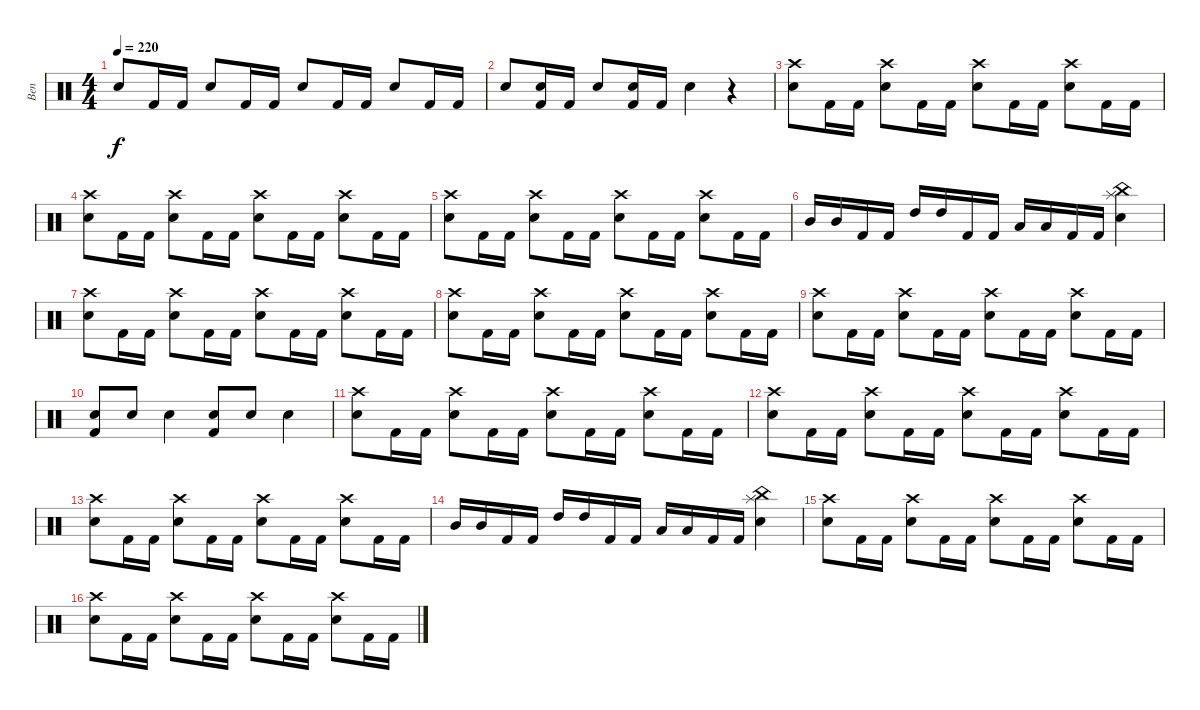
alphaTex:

\track ("Ben" "Ben") {instrument percussion}
\staff {score}
\articulation defaults
\ts (4 4)
\tempo 220
\clef neutral
\ks c "Snare (hit) 2".8{dy f} "Kick (hit) 2".16 "Kick (hit) 2".16 "Snare (hit) 2".8 "Kick (hit) 2".16 "Kick (hit) 2".16 "Snare (hit) 2".8 "Kick (hit) 2".16 "Kick (hit) 2".16 "Snare (hit) 2".8 "Kick (hit) 2".16 "Kick (hit) 2".16
|
"Snare (hit) 2".8 ("Snare (hit) 2" "Kick (hit) 2").16 "Kick (hit) 2".16 "Snare (hit) 2".8 ("Snare (hit) 2" "Kick (hit) 2").16 "Kick (hit) 2".16 "Snare (hit) 2".4 r.4 |
("Crash high (hit)" "Snare (hit) 2").8 "Kick (hit) 2".16 "Kick (hit) 2".16 ("Crash high (hit)" "Snare (hit) 2").8 "Kick (hit) 2".16 "Kick (hit) 2".16 ("Crash high (hit)" "Snare (hit) 2").8 "Kick (hit) 2".16 "Kick (hit) 2".16 ("Crash high (hit)" "Snare (hit) 2").8 "Kick (hit) 2".16 "Kick (hit) 2".16 |
("Crash high (hit)" "Snare (hit) 2").8 "Kick (hit) 2".16 "Kick (hit) 2".16 ("Crash high (hit)" "Snare (hit) 2").8 "Kick (hit) 2".16 "Kick (hit) 2".16 ("Crash high (hit)" "Snare (hit) 2").8 "Kick (hit) 2".16 "Kick (hit) 2".16 ("Crash high (hit)" "Snare (hit) 2").8 "Kick (hit) 2".16 "Kick (hit) 2".16 |
("Crash high (hit)" "Snare (hit) 2").8 "Kick (hit) 2".16 "Kick (hit) 2".16 ("Crash high (hit)" "Snare (hit) 2").8 "Kick (hit) 2".16 "Kick (hit) 2".16 ("Crash high (hit)" "Snare (hit) 2").8 "Kick (hit) 2".16 "Kick (hit) 2".16 ("Crash high (hit)" "Snare (hit) 2").8 "Kick (hit) 2".16 "Kick (hit) 2".16 |
"Mid Tom (hit)".16 "Mid Tom (hit)".16 "Kick (hit) 2".16 "Kick (hit) 2".16 "High Tom (hit)".16 "High Tom (hit)".16 "Kick (hit) 2".16 "Kick (hit) 2".16 "Low Tom (hit)".16 "Low Tom (hit)".16 "Kick (hit) 2".16 "Kick (hit) 2".16 ("China (hit)" "Splash (hit)" "Snare (hit) 2").4 |
("Crash high (hit)" "Snare (hit) 2").8 "Kick (hit) 2".16 "Kick (hit) 2".16 ("Crash high (hit)" "Snare (hit) 2").8 "Kick (hit) 2".16 "Kick (hit) 2".16 ("Crash high (hit)" "Snare (hit) 2").8 "Kick (hit) 2".16 "Kick (hit) 2".16 ("Crash high (hit)" "Snare (hit) 2").8 "Kick (hit) 2".16 "Kick (hit) 2".16 |
("Crash high (hit)" "Snare (hit) 2").8 "Kick (hit) 2".16 "Kick (hit) 2".16 ("Crash high (hit)" "Snare (hit) 2").8 "Kick (hit) 2".16 "Kick (hit) 2".16 ("Crash high (hit)" "Snare (hit) 2").8 "Kick (hit) 2".16 "Kick (hit) 2".16 ("Crash high (hit)" "Snare (hit) 2").8 "Kick (hit) 2".16 "Kick (hit) 2".16 |
("Crash high (hit)" "Snare (hit) 2").8 "Kick (hit) 2".16 "Kick (hit) 2".16 ("Crash high (hit)" "Snare (hit) 2").8 "Kick (hit) 2".16 "Kick (hit) 2".16 ("Crash high (hit)" "Snare (hit) 2").8 "Kick (hit) 2".16 "Kick (hit) 2".16 ("Crash high (hit)" "Snare (hit) 2").8 "Kick (hit) 2".16 "Kick (hit) 2".16 |
("Snare (hit) 2" "Kick (hit) 2").8 "Snare (hit) 2".8 "Snare (hit) 2".4 ("Snare (hit) 2" "Kick (hit) 2").8 "Snare (hit) 2".8 "Snare (hit) 2".4 |
("Crash high (hit)" "Snare (hit) 2").8 "Kick (hit) 2".16 "Kick (hit) 2".16 ("Crash high (hit)" "Snare (hit) 2").8 "Kick (hit) 2".16 "Kick (hit) 2".16 ("Crash high (hit)" "Snare (hit) 2").8 "Kick (hit) 2".16 "Kick (hit) 2".16 ("Crash high (hit)" "Snare (hit) 2").8 "Kick (hit) 2".16 "Kick (hit) 2".16 |
("Crash high (hit)" "Snare (hit) 2").8 "Kick (hit) 2".16 "Kick (hit) 2".16 ("Crash high (hit)" "Snare (hit) 2").8 "Kick (hit) 2".16 "Kick (hit) 2".16 ("Crash high (hit)" "Snare (hit) 2").8 "Kick (hit) 2".16 "Kick (hit) 2".16 ("Crash high (hit)" "Snare (hit) 2").8 "Kick (hit) 2".16 "Kick (hit) 2".16 |
("Crash high (hit)" "Snare (hit) 2").8 "Kick (hit) 2".16 "Kick (hit) 2".16 ("Crash high (hit)" "Snare (hit) 2").8 "Kick (hit) 2".16 "Kick (hit) 2".16 ("Crash high (hit)" "Snare (hit) 2").8 "Kick (hit) 2".16 "Kick (hit) 2".16 ("Crash high (hit)" "Snare (hit) 2").8 "Kick (hit) 2".16 "Kick (hit) 2".16 |
"Mid Tom (hit)".16 "Mid Tom (hit)".16 "Kick (hit) 2".16 "Kick (hit) 2".16 "High Tom (hit)".16 "High Tom (hit)".16 "Kick (hit) 2".16 "Kick (hit) 2".16 "Low Tom (hit)".16 "Low Tom (hit)".16 "Kick (hit) 2".16 "Kick (hit) 2".16 ("China (hit)" "Splash (hit)" "Snare (hit) 2").4 |
("Crash high (hit)" "Snare (hit) 2").8 "Kick (hit) 2".16 "Kick (hit) 2".16 ("Crash high (hit)" "Snare (hit) 2").8 "Kick (hit) 2".16 "Kick (hit) 2".16 ("Crash high (hit)" "Snare (hit) 2").8 "Kick (hit) 2".16 "Kick (hit) 2".16 ("Crash high (hit)" "Snare (hit) 2").8 "Kick (hit) 2".16 "Kick (hit) 2".16 |
("Crash high (hit)" "Snare (hit) 2").8 "Kick (hit) 2".16 "Kick (hit) 2".16 ("Crash high (hit)" "Snare (hit) 2").8 "Kick (hit) 2".16 "Kick (hit) 2".16 ("Crash high (hit)" "Snare (hit) 2").8 "Kick (hit) 2".16 "Kick (hit) 2".16 ("Crash high (hit)" "Snare (hit) 2").8 "Kick (hit) 2".16 "Kick (hit) 2".16
